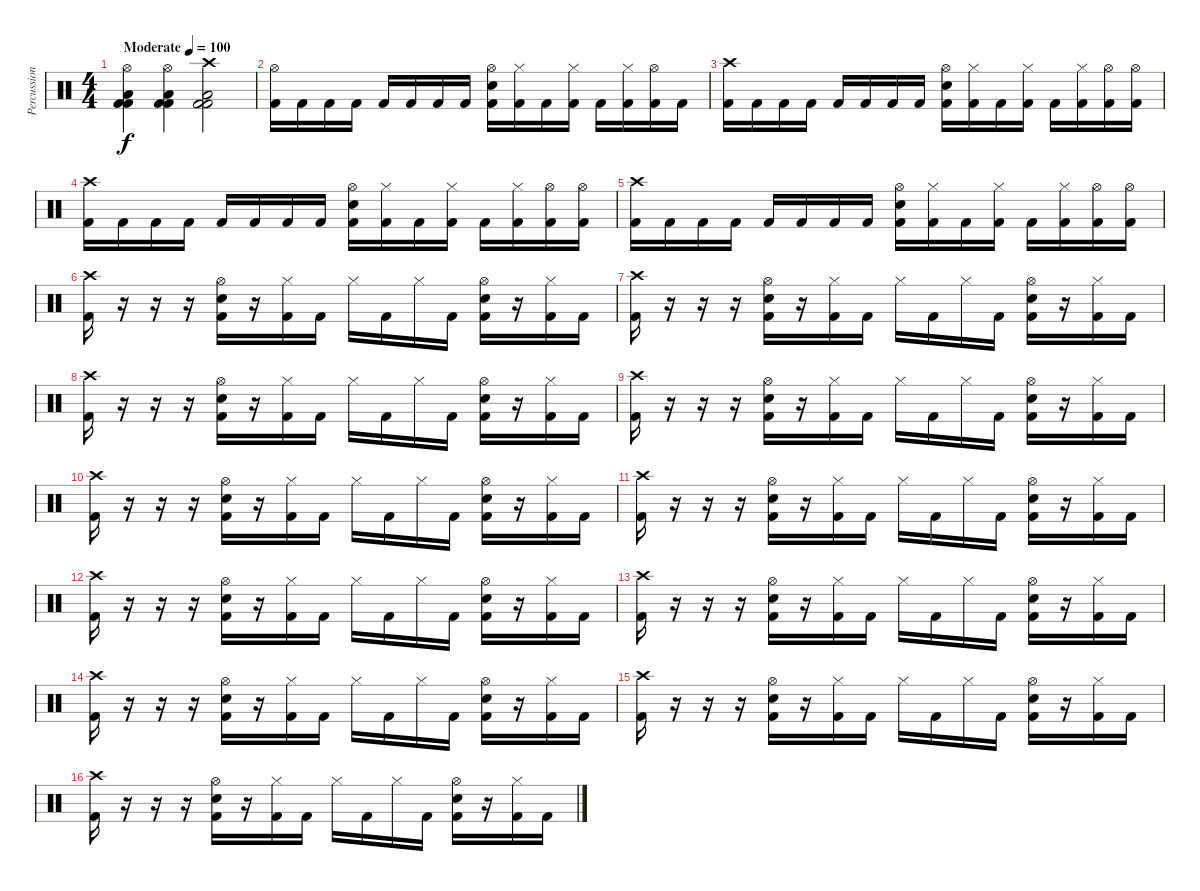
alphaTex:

\track ("Percussions" "Percussion") {instrument percussion}
\staff {score}
\articulation defaults
\ts (4 4)
\tempo (100 "Moderate")
\clef neutral
\ks c
("Hi-Hat (open)" "Kick (hit) 2" "Kick (hit) 2" "Low Tom (hit)").4{dy f} ("Hi-Hat (open)" "Kick (hit) 2" "Kick (hit) 2" "Low Tom (hit)").4 ("Crash high (hit)" "Kick (hit) 2" "Kick (hit) 2" "Low Tom (hit)").2 |
("Hi-Hat (open)" "Kick (hit) 2").16 "Kick (hit) 2".16 "Kick (hit) 2".16 "Kick (hit) 2".16 "Kick (hit) 2".16 "Kick (hit) 2".16 "Kick (hit) 2".16 "Kick (hit) 2".16 ("Hi-Hat (open)" "Kick (hit) 2" "Snare (hit) 2").16 ("Hi-Hat (closed)" "Kick (hit) 2").16 "Kick (hit) 2".16 ("Hi-Hat (closed)" "Kick (hit) 2").16 "Kick (hit) 2".16 ("Hi-Hat (closed)" "Kick (hit) 2").16 ("Hi-Hat (open)" "Kick (hit) 2").16 "Kick (hit) 2".16 |
("Crash high (hit)" "Kick (hit) 2").16 "Kick (hit) 2".16 "Kick (hit) 2".16 "Kick (hit) 2".16 "Kick (hit) 2".16 "Kick (hit) 2".16 "Kick (hit) 2".16 "Kick (hit) 2".16 ("Hi-Hat (open)" "Kick (hit) 2" "Snare (hit) 2").16 ("Hi-Hat (closed)" "Kick (hit) 2").16 "Kick (hit) 2".16 ("Hi-Hat (closed)" "Kick (hit) 2").16 "Kick (hit) 2".16 ("Hi-Hat (closed)" "Kick (hit) 2").16 ("Hi-Hat (open)" "Kick (hit) 2").16 ("Hi-Hat (open)" "Kick (hit) 2").16 |
("Crash high (hit)" "Kick (hit) 2").16 "Kick (hit) 2".16 "Kick (hit) 2".16 "Kick (hit) 2".16 "Kick (hit) 2".16 "Kick (hit) 2".16 "Kick (hit) 2".16 "Kick (hit) 2".16 ("Hi-Hat (open)" "Kick (hit) 2" "Snare (hit) 2").16 ("Hi-Hat (closed)" "Kick (hit) 2").16 "Kick (hit) 2".16 ("Hi-Hat (closed)" "Kick (hit) 2").16 "Kick (hit) 2".16 ("Hi-Hat (closed)" "Kick (hit) 2").16 ("Hi-Hat (open)" "Kick (hit) 2").16 ("Hi-Hat (open)" "Kick (hit) 2").16 |
("Crash high (hit)" "Kick (hit) 2").16 "Kick (hit) 2".16 "Kick (hit) 2".16 "Kick (hit) 2".16 "Kick (hit) 2".16 "Kick (hit) 2".16 "Kick (hit) 2".16 "Kick (hit) 2".16 ("Hi-Hat (open)" "Kick (hit) 2" "Snare (hit) 2").16 ("Hi-Hat (closed)" "Kick (hit) 2").16 "Kick (hit) 2".16 ("Hi-Hat (closed)" "Kick (hit) 2").16 "Kick (hit) 2".16 ("Hi-Hat (closed)" "Kick (hit) 2").16 ("Hi-Hat (open)" "Kick (hit) 2").16 ("Hi-Hat (open)" "Kick (hit) 2").16 |
("Crash high (hit)" "Kick (hit) 2").16 r.16 r.16 r.16 ("Hi-Hat (open)" "Kick (hit) 2" "Snare (hit) 2").16 r.16 ("Hi-Hat (closed)" "Kick (hit) 2").16 "Kick (hit) 2".16 "Hi-Hat (closed)".16 "Kick (hit) 2".16 "Hi-Hat (closed)".16 "Kick (hit) 2".16 ("Hi-Hat (open)" "Kick (hit) 2" "Snare (hit) 2").16 r.16 ("Hi-Hat (closed)" "Kick (hit) 2").16 "Kick (hit) 2".16 |
("Crash high (hit)" "Kick (hit) 2").16 r.16 r.16 r.16 ("Hi-Hat (open)" "Kick (hit) 2" "Snare (hit) 2").16 r.16 ("Hi-Hat (closed)" "Kick (hit) 2").16 "Kick (hit) 2".16 "Hi-Hat (closed)".16 "Kick (hit) 2".16 "Hi-Hat (closed)".16 "Kick (hit) 2".16 ("Hi-Hat (open)" "Kick (hit) 2" "Snare (hit) 2").16 r.16 ("Hi-Hat (closed)" "Kick (hit) 2").16 "Kick (hit) 2".16 |
("Crash high (hit)" "Kick (hit) 2").16 r.16 r.16 r.16 ("Hi-Hat (open)" "Kick (hit) 2" "Snare (hit) 2").16 r.16 ("Hi-Hat (closed)" "Kick (hit) 2").16 "Kick (hit) 2".16 "Hi-Hat (closed)".16 "Kick (hit) 2".16 "Hi-Hat (closed)".16 "Kick (hit) 2".16 ("Hi-Hat (open)" "Kick (hit) 2" "Snare (hit) 2").16 r.16 ("Hi-Hat (closed)" "Kick (hit) 2").16 "Kick (hit) 2".16 |
("Crash high (hit)" "Kick (hit) 2").16 r.16 r.16 r.16 ("Hi-Hat (open)" "Kick (hit) 2" "Snare (hit) 2").16 r.16 ("Hi-Hat (closed)" "Kick (hit) 2").16 "Kick (hit) 2".16 "Hi-Hat (closed)".16 "Kick (hit) 2".16 "Hi-Hat (closed)".16 "Kick (hit) 2".16 ("Hi-Hat (open)" "Kick (hit) 2" "Snare (hit) 2").16 r.16 ("Hi-Hat (closed)" "Kick (hit) 2").16 "Kick (hit) 2".16 |
("Crash high (hit)" "Kick (hit) 2").16 r.16 r.16 r.16 ("Hi-Hat (open)" "Kick (hit) 2" "Snare (hit) 2").16 r.16 ("Hi-Hat (closed)" "Kick (hit) 2").16 "Kick (hit) 2".16 "Hi-Hat (closed)".16 "Kick (hit) 2".16 "Hi-Hat (closed)".16 "Kick (hit) 2".16 ("Hi-Hat (open)" "Kick (hit) 2" "Snare (hit) 2").16 r.16 ("Hi-Hat (closed)" "Kick (hit) 2").16 "Kick (hit) 2".16 |
("Crash high (hit)" "Kick (hit) 2").16 r.16 r.16 r.16 ("Hi-Hat (open)" "Kick (hit) 2" "Snare (hit) 2").16 r.16 ("Hi-Hat (closed)" "Kick (hit) 2").16 "Kick (hit) 2".16 "Hi-Hat (closed)".16 "Kick (hit) 2".16 "Hi-Hat (closed)".16 "Kick (hit) 2".16 ("Hi-Hat (open)" "Kick (hit) 2" "Snare (hit) 2").16 r.16 ("Hi-Hat (closed)" "Kick (hit) 2").16 "Kick (hit) 2".16 |
("Crash high (hit)" "Kick (hit) 2").16 r.16 r.16 r.16 ("Hi-Hat (open)" "Kick (hit) 2" "Snare (hit) 2").16 r.16 ("Hi-Hat (closed)" "Kick (hit) 2").16 "Kick (hit) 2".16 "Hi-Hat (closed)".16 "Kick (hit) 2".16 "Hi-Hat (closed)".16 "Kick (hit) 2".16 ("Hi-Hat (open)" "Kick (hit) 2" "Snare (hit) 2").16 r.16 ("Hi-Hat (closed)" "Kick (hit) 2").16 "Kick (hit) 2".16 |
("Crash high (hit)" "Kick (hit) 2").16 r.16 r.16 r.16 ("Hi-Hat (open)" "Kick (hit) 2" "Snare (hit) 2").16 r.16 ("Hi-Hat (closed)" "Kick (hit) 2").16 "Kick (hit) 2".16 "Hi-Hat (closed)".16 "Kick (hit) 2".16 "Hi-Hat (closed)".16 "Kick (hit) 2".16 ("Hi-Hat (open)" "Kick (hit) 2" "Snare (hit) 2").16 r.16 ("Hi-Hat (closed)" "Kick (hit) 2").16 "Kick (hit) 2".16 |
("Crash high (hit)" "Kick (hit) 2").16 r.16 r.16 r.16 ("Hi-Hat (open)" "Kick (hit) 2" "Snare (hit) 2").16 r.16 ("Hi-Hat (closed)" "Kick (hit) 2").16 "Kick (hit) 2".16 "Hi-Hat (closed)".16 "Kick (hit) 2".16 "Hi-Hat (closed)".16 "Kick (hit) 2".16 ("Hi-Hat (open)" "Kick (hit) 2" "Snare (hit) 2").16 r.16 ("Hi-Hat (closed)" "Kick (hit) 2").16 "Kick (hit) 2".16 |
("Crash high (hit)" "Kick (hit) 2").16 r.16 r.16 r.16 ("Hi-Hat (open)" "Kick (hit) 2" "Snare (hit) 2").16 r.16 ("Hi-Hat (closed)" "Kick (hit) 2").16 "Kick (hit) 2".16 "Hi-Hat (closed)".16 "Kick (hit) 2".16 "Hi-Hat (closed)".16 "Kick (hit) 2".16 ("Hi-Hat (open)" "Kick (hit) 2" "Snare (hit) 2").16 r.16 ("Hi-Hat (closed)" "Kick (hit) 2").16 "Kick (hit) 2".16 |
("Crash high (hit)" "Kick (hit) 2").16 r.16 r.16 r.16 ("Hi-Hat (open)" "Kick (hit) 2" "Snare (hit) 2").16 r.16 ("Hi-Hat (closed)" "Kick (hit) 2").16 "Kick (hit) 2".16 "Hi-Hat (closed)".16 "Kick (hit) 2".16 "Hi-Hat (closed)".16 "Kick (hit) 2".16 ("Hi-Hat (open)" "Kick (hit) 2" "Snare (hit) 2").16 r.16 ("Hi-Hat (closed)" "Kick (hit) 2").16 "Kick (hit) 2".16
